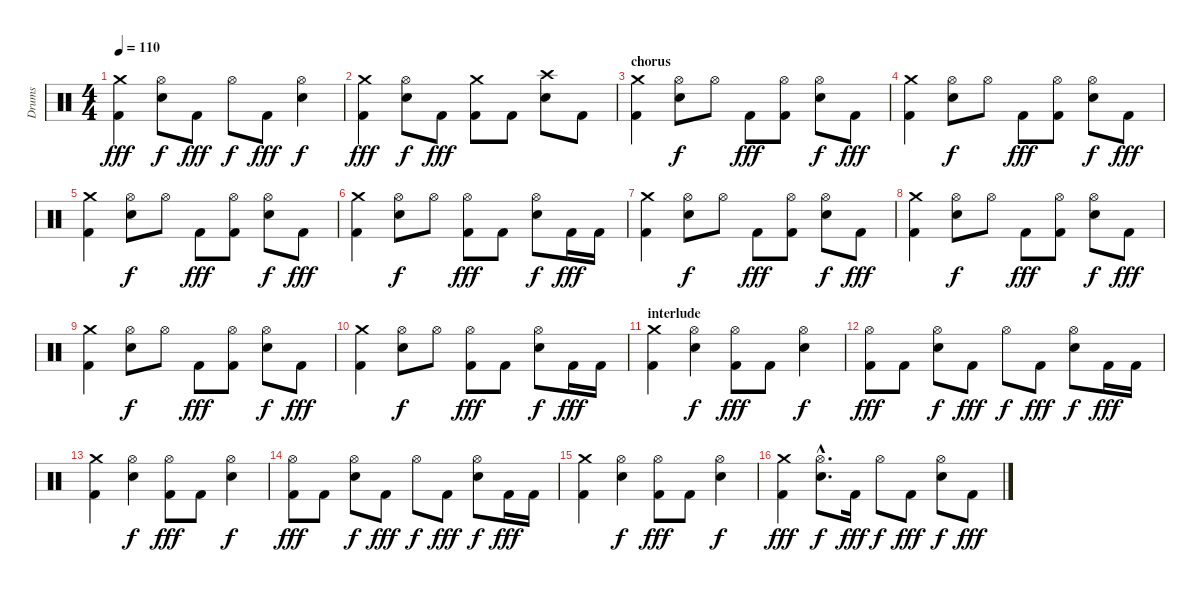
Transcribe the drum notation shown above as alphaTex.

\track ("Drums" "Drums") {instrument percussion}
\staff {score}
\articulation defaults
\ts (4 4)
\tempo 110
\clef neutral
\ks c
("Crash medium (hit)" "Kick (hit) 2").4{dy fff} ("Hi-Hat (open)" "Electric Snare (hit)").8{dy f} "Kick (hit) 2".8{dy fff} "Hi-Hat (open)".8{dy f} "Kick (hit) 2".8{dy fff} ("Hi-Hat (open)" "Electric Snare (hit)").4{dy f} |
("Crash medium (hit)" "Kick (hit) 2").4{dy fff} ("Hi-Hat (open)" "Electric Snare (hit)").8{dy f} "Kick (hit) 2".8{dy fff} ("Crash medium (hit)" "Kick (hit) 2").8 "Kick (hit) 2".8 ("Crash high (hit)" "Electric Snare (hit)").8 "Kick (hit) 2".8 |
\section ("" "chorus")
("Crash medium (hit)" "Kick (hit) 2").4 ("Hi-Hat (open)" "Electric Snare (hit)").8{dy f} "Hi-Hat (open)".8 "Kick (hit) 2".8{dy fff} ("Hi-Hat (open)" "Kick (hit) 2").8 ("Hi-Hat (open)" "Electric Snare (hit)").8{dy f} "Kick (hit) 2".8{dy fff} |
("Crash medium (hit)" "Kick (hit) 2").4 ("Hi-Hat (open)" "Electric Snare (hit)").8{dy f} "Hi-Hat (open)".8 "Kick (hit) 2".8{dy fff} ("Hi-Hat (open)" "Kick (hit) 2").8 ("Hi-Hat (open)" "Electric Snare (hit)").8{dy f} "Kick (hit) 2".8{dy fff} |
("Crash medium (hit)" "Kick (hit) 2").4 ("Hi-Hat (open)" "Electric Snare (hit)").8{dy f} "Hi-Hat (open)".8 "Kick (hit) 2".8{dy fff} ("Hi-Hat (open)" "Kick (hit) 2").8 ("Hi-Hat (open)" "Electric Snare (hit)").8{dy f} "Kick (hit) 2".8{dy fff} |
("Crash medium (hit)" "Kick (hit) 2").4 ("Hi-Hat (open)" "Electric Snare (hit)").8{dy f} "Hi-Hat (open)".8 ("Hi-Hat (open)" "Kick (hit) 2").8{dy fff} "Kick (hit) 2".8 ("Hi-Hat (open)" "Electric Snare (hit)").8{dy f} "Kick (hit) 2".16{dy fff} "Kick (hit) 2".16 |
("Crash medium (hit)" "Kick (hit) 2").4 ("Hi-Hat (open)" "Electric Snare (hit)").8{dy f} "Hi-Hat (open)".8 "Kick (hit) 2".8{dy fff} ("Hi-Hat (open)" "Kick (hit) 2").8 ("Hi-Hat (open)" "Electric Snare (hit)").8{dy f} "Kick (hit) 2".8{dy fff} |
("Crash medium (hit)" "Kick (hit) 2").4 ("Hi-Hat (open)" "Electric Snare (hit)").8{dy f} "Hi-Hat (open)".8 "Kick (hit) 2".8{dy fff} ("Hi-Hat (open)" "Kick (hit) 2").8 ("Hi-Hat (open)" "Electric Snare (hit)").8{dy f} "Kick (hit) 2".8{dy fff} |
("Crash medium (hit)" "Kick (hit) 2").4 ("Hi-Hat (open)" "Electric Snare (hit)").8{dy f} "Hi-Hat (open)".8 "Kick (hit) 2".8{dy fff} ("Hi-Hat (open)" "Kick (hit) 2").8 ("Hi-Hat (open)" "Electric Snare (hit)").8{dy f} "Kick (hit) 2".8{dy fff} |
("Crash medium (hit)" "Kick (hit) 2").4 ("Hi-Hat (open)" "Electric Snare (hit)").8{dy f} "Hi-Hat (open)".8 ("Hi-Hat (open)" "Kick (hit) 2").8{dy fff} "Kick (hit) 2".8 ("Hi-Hat (open)" "Electric Snare (hit)").8{dy f} "Kick (hit) 2".16{dy fff} "Kick (hit) 2".16 |
\section ("" "interlude")
("Crash medium (hit)" "Kick (hit) 2").4 ("Hi-Hat (open)" "Electric Snare (hit)").4{dy f} ("Hi-Hat (open)" "Kick (hit) 2").8{dy fff} "Kick (hit) 2".8 ("Hi-Hat (open)" "Electric Snare (hit)").4{dy f} |
("Hi-Hat (open)" "Kick (hit) 2").8{dy fff} "Kick (hit) 2".8 ("Hi-Hat (open)" "Electric Snare (hit)").8{dy f} "Kick (hit) 2".8{dy fff} "Hi-Hat (open)".8{dy f} "Kick (hit) 2".8{dy fff} ("Hi-Hat (open)" "Electric Snare (hit)").8{dy f} "Kick (hit) 2".16{dy fff} "Kick (hit) 2".16 |
("Crash medium (hit)" "Kick (hit) 2").4 ("Hi-Hat (open)" "Electric Snare (hit)").4{dy f} ("Hi-Hat (open)" "Kick (hit) 2").8{dy fff} "Kick (hit) 2".8 ("Hi-Hat (open)" "Electric Snare (hit)").4{dy f} |
("Hi-Hat (open)" "Kick (hit) 2").8{dy fff} "Kick (hit) 2".8 ("Hi-Hat (open)" "Electric Snare (hit)").8{dy f} "Kick (hit) 2".8{dy fff} "Hi-Hat (open)".8{dy f} "Kick (hit) 2".8{dy fff} ("Hi-Hat (open)" "Electric Snare (hit)").8{dy f} "Kick (hit) 2".16{dy fff} "Kick (hit) 2".16 |
("Crash medium (hit)" "Kick (hit) 2").4 ("Hi-Hat (open)" "Electric Snare (hit)").4{dy f} ("Hi-Hat (open)" "Kick (hit) 2").8{dy fff} "Kick (hit) 2".8 ("Hi-Hat (open)" "Electric Snare (hit)").4{dy f} |
("Crash medium (hit)" "Kick (hit) 2").4{dy fff} ("Hi-Hat (open)"{hac} "Electric Snare (hit)"{hac}).8{d dy f} "Kick (hit) 2".16{dy fff} "Hi-Hat (open)".8{dy f} "Kick (hit) 2".8{dy fff} ("Hi-Hat (open)" "Electric Snare (hit)").8{dy f} "Kick (hit) 2".8{dy fff}
